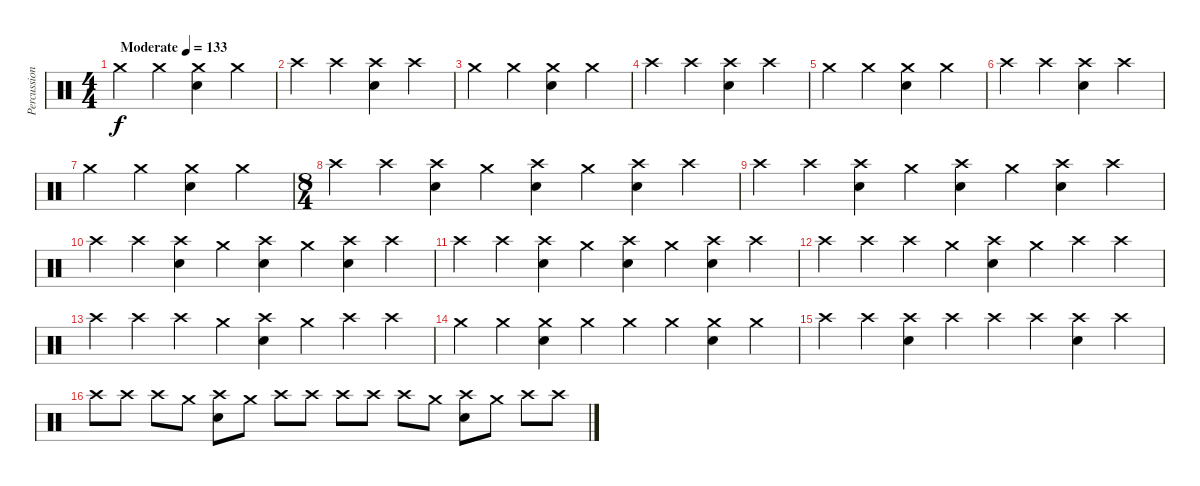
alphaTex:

\track ("Percussion" "Percussion") {instrument percussion}
\staff {score}
\articulation defaults
\ts (4 4)
\tempo (133 "Moderate")
\clef neutral
\ks c "Crash medium (hit)".4{dy f} "Crash medium (hit)".4
("Crash medium (hit)" "Electric Snare (hit)").4 "Crash medium (hit)".4 |
"Crash high (hit)".4 "Crash high (hit)".4 ("Crash high (hit)" "Snare (hit) 2").4 "Crash high (hit)".4 |
"Crash medium (hit)".4 "Crash medium (hit)".4 ("Crash medium (hit)" "Electric Snare (hit)").4 "Crash medium (hit)".4 |
"Crash high (hit)".4 "Crash high (hit)".4 ("Crash high (hit)" "Snare (hit) 2").4 "Crash high (hit)".4 |
"Crash medium (hit)".4 "Crash medium (hit)".4 ("Crash medium (hit)" "Electric Snare (hit)").4 "Crash medium (hit)".4 |
"Crash high (hit)".4 "Crash high (hit)".4 ("Crash high (hit)" "Snare (hit) 2").4 "Crash high (hit)".4 |
"Crash medium (hit)".4 "Crash medium (hit)".4 ("Crash medium (hit)" "Electric Snare (hit)").4 "Crash medium (hit)".4 |
\ts (8 4)
"Crash high (hit)".4 "Crash high (hit)".4 ("Crash high (hit)" "Snare (hit) 2").4 "Crash medium (hit)".4 ("Crash high (hit)" "Electric Snare (hit)").4 "Crash medium (hit)".4 ("Crash high (hit)" "Snare (hit) 2").4 "Crash high (hit)".4 |
"Crash high (hit)".4 "Crash high (hit)".4 ("Crash high (hit)" "Snare (hit) 2").4 "Crash medium (hit)".4 ("Crash high (hit)" "Electric Snare (hit)").4 "Crash medium (hit)".4 ("Crash high (hit)" "Snare (hit) 2").4 "Crash high (hit)".4 |
"Crash high (hit)".4 "Crash high (hit)".4 ("Crash high (hit)" "Snare (hit) 2").4 "Crash medium (hit)".4 ("Crash high (hit)" "Electric Snare (hit)").4 "Crash medium (hit)".4 ("Crash high (hit)" "Snare (hit) 2").4 "Crash high (hit)".4 |
"Crash high (hit)".4 "Crash high (hit)".4 ("Crash high (hit)" "Snare (hit) 2").4 "Crash medium (hit)".4 ("Crash high (hit)" "Electric Snare (hit)").4 "Crash medium (hit)".4 ("Crash high (hit)" "Snare (hit) 2").4 "Crash high (hit)".4 |
"Crash high (hit)".4 "Crash high (hit)".4 "Crash high (hit)".4 "Crash medium (hit)".4 ("Crash high (hit)" "Electric Snare (hit)").4 "Crash medium (hit)".4 "Crash high (hit)".4 "Crash high (hit)".4 |
"Crash high (hit)".4 "Crash high (hit)".4 "Crash high (hit)".4 "Crash medium (hit)".4 ("Crash high (hit)" "Electric Snare (hit)").4 "Crash medium (hit)".4 "Crash high (hit)".4 "Crash high (hit)".4 |
"Crash medium (hit)".4 "Crash medium (hit)".4 ("Crash medium (hit)" "Electric Snare (hit)").4 "Crash medium (hit)".4 "Crash medium (hit)".4 "Crash medium (hit)".4 ("Crash medium (hit)" "Electric Snare (hit)").4 "Crash medium (hit)".4 |
"Crash high (hit)".4 "Crash high (hit)".4 ("Crash high (hit)" "Snare (hit) 2").4 "Crash high (hit)".4 "Crash high (hit)".4 "Crash high (hit)".4 ("Crash high (hit)" "Snare (hit) 2").4 "Crash high (hit)".4 |
"Crash high (hit)".8 "Crash high (hit)".8 "Crash high (hit)".8 "Crash medium (hit)".8 ("Crash high (hit)" "Electric Snare (hit)").8 "Crash medium (hit)".8 "Crash high (hit)".8 "Crash high (hit)".8 "Crash high (hit)".8 "Crash high (hit)".8 "Crash high (hit)".8 "Crash medium (hit)".8 ("Crash high (hit)" "Electric Snare (hit)").8 "Crash medium (hit)".8 "Crash high (hit)".8 "Crash high (hit)".8
